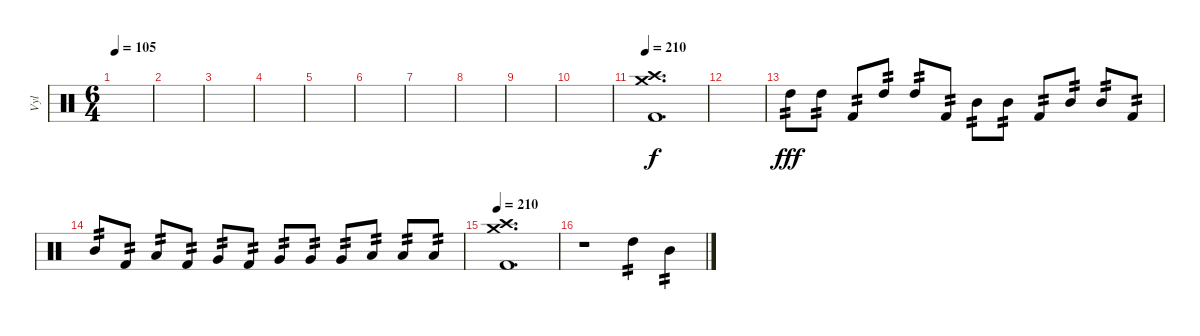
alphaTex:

\track ("Vyl" "Vyl") {instrument percussion}
\staff {score}
\articulation defaults
\ts (6 4)
\tempo 105
\clef neutral
\ks c
|
|
|
|
|
|
|
|
|
|
\tempo 210
("Kick (hit) 2" "Crash medium (hit)" "Crash high (hit)").1{d} |
|
"High Tom (hit)".8{tp 2 dy fff} "High Tom (hit)".8{tp 2} "Kick (hit) 2".8{tp 2} "High Tom (hit)".8{tp 2} "High Tom (hit)".8{tp 2} "Kick (hit) 2".8{tp 2} "Mid Tom (hit)".8{tp 2} "Mid Tom (hit)".8{tp 2} "Kick (hit) 2".8{tp 2} "Mid Tom (hit)".8{tp 2} "Mid Tom (hit)".8{tp 2} "Kick (hit) 2".8{tp 2} |
"Mid Tom (hit)".8{tp 2} "Kick (hit) 2".8{tp 2} "Low Tom (hit)".8{tp 2} "Kick (hit) 2".8{tp 2} "Very Low Tom (hit)".8{tp 2} "Kick (hit) 2".8{tp 2} "Very Low Tom (hit)".8{tp 2} "Very Low Tom (hit)".8{tp 2} "Very Low Tom (hit)".8{tp 2} "Low Floor Tom (hit)".8{tp 2} "Low Floor Tom (hit)".8{tp 2} "Low Floor Tom (hit)".8{tp 2} |
\tempo 210
("Crash medium (hit)" "Crash high (hit)" "Kick (hit) 2").1{d} |
r.1 "High Tom (hit)".4{tp 2} "Mid Tom (hit)".4{tp 2}
